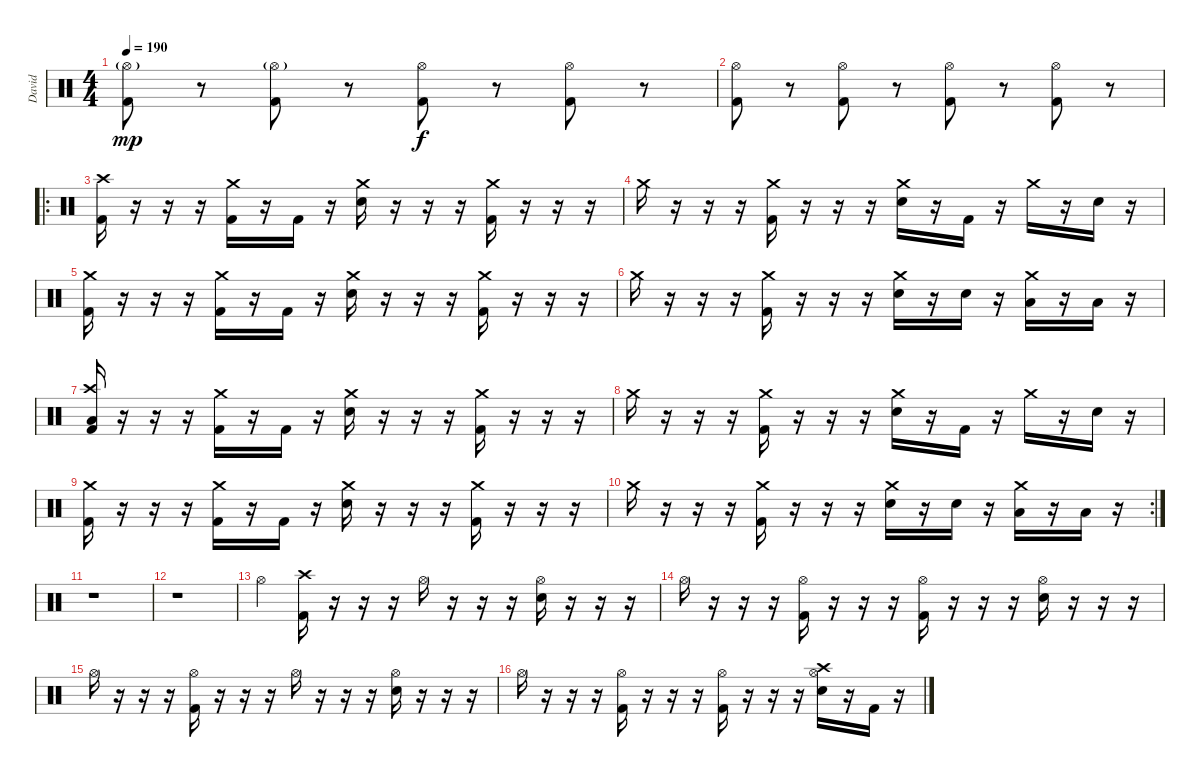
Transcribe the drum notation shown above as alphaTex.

\track ("David" "David") {instrument percussion}
\staff {score}
\articulation defaults
\ts (4 4)
\tempo 190
\clef neutral
\ks c
("Hi-Hat (open)"{g} "Kick (hit) 2").8{dy mp} r.8 ("Hi-Hat (open)"{g} "Kick (hit) 2").8 r.8 ("Hi-Hat (open)" "Kick (hit) 2").8{dy f} r.8 ("Hi-Hat (open)" "Kick (hit) 2").8 r.8 |
("Hi-Hat (open)" "Kick (hit) 2").8 r.8 ("Hi-Hat (open)" "Kick (hit) 2").8 r.8 ("Hi-Hat (open)" "Kick (hit) 2").8 r.8 ("Hi-Hat (open)" "Kick (hit) 2").8 r.8 |
\ro
("Crash high (hit)" "Kick (hit) 2").16 r.16 r.16 r.16 ("Crash medium (hit)" "Kick (hit) 2").16 r.16 "Kick (hit) 2".16 r.16 ("Crash medium (hit)" "Electric Snare (hit)").16 r.16 r.16 r.16 ("Crash medium (hit)" "Kick (hit) 2").16 r.16 r.16 r.16 |
"Crash medium (hit)".16 r.16 r.16 r.16 ("Crash medium (hit)" "Kick (hit) 2").16 r.16 r.16 r.16 ("Crash medium (hit)" "Electric Snare (hit)").16 r.16 "Kick (hit) 2".16 r.16 "Crash medium (hit)".16 r.16 "Electric Snare (hit)".16 r.16 |
("Crash medium (hit)" "Kick (hit) 2").16 r.16 r.16 r.16 ("Crash medium (hit)" "Kick (hit) 2").16 r.16 "Kick (hit) 2".16 r.16 ("Crash medium (hit)" "Electric Snare (hit)").16 r.16 r.16 r.16 ("Crash medium (hit)" "Kick (hit) 2").16 r.16 r.16 r.16 |
"Crash medium (hit)".16 r.16 r.16 r.16 ("Crash medium (hit)" "Kick (hit) 2").16 r.16 r.16 r.16 ("Crash medium (hit)" "Electric Snare (hit)").16 r.16 "Electric Snare (hit)".16 r.16 ("Crash medium (hit)" "Low Tom (hit)").16 r.16 "Low Tom (hit)".16 r.16 |
("Crash high (hit)" "Low Floor Tom (hit)" "Kick (hit) 2").16 r.16 r.16 r.16 ("Crash medium (hit)" "Kick (hit) 2").16 r.16 "Kick (hit) 2".16 r.16 ("Crash medium (hit)" "Electric Snare (hit)").16 r.16 r.16 r.16 ("Crash medium (hit)" "Kick (hit) 2").16 r.16 r.16 r.16 |
"Crash medium (hit)".16 r.16 r.16 r.16 ("Crash medium (hit)" "Kick (hit) 2").16 r.16 r.16 r.16 ("Crash medium (hit)" "Electric Snare (hit)").16 r.16 "Kick (hit) 2".16 r.16 "Crash medium (hit)".16 r.16 "Electric Snare (hit)".16 r.16 |
("Crash medium (hit)" "Kick (hit) 2").16 r.16 r.16 r.16 ("Crash medium (hit)" "Kick (hit) 2").16 r.16 "Kick (hit) 2".16 r.16 ("Crash medium (hit)" "Electric Snare (hit)").16 r.16 r.16 r.16 ("Crash medium (hit)" "Kick (hit) 2").16 r.16 r.16 r.16 |
\rc 2 "Crash medium (hit)".16
r.16 r.16 r.16 ("Crash medium (hit)" "Kick (hit) 2").16 r.16 r.16 r.16 ("Crash medium (hit)" "Electric Snare (hit)").16 r.16 "Electric Snare (hit)".16 r.16 ("Crash medium (hit)" "Low Tom (hit)").16 r.16 "Low Tom (hit)".16 r.16 |
r.1 |
r.1 |
"Hi-Hat (open)".4 ("Crash high (hit)" "Kick (hit) 2").16 r.16 r.16 r.16 "Hi-Hat (open)".16 r.16 r.16 r.16 ("Hi-Hat (open)" "Electric Snare (hit)").16 r.16 r.16 r.16 |
"Hi-Hat (open)".16 r.16 r.16 r.16 ("Hi-Hat (open)" "Kick (hit) 2").16 r.16 r.16 r.16 ("Hi-Hat (open)" "Kick (hit) 2").16 r.16 r.16 r.16 ("Hi-Hat (open)" "Electric Snare (hit)").16 r.16 r.16 r.16 |
"Hi-Hat (open)".16 r.16 r.16 r.16 ("Hi-Hat (open)" "Kick (hit) 2").16 r.16 r.16 r.16 "Hi-Hat (open)".16 r.16 r.16 r.16 ("Hi-Hat (open)" "Electric Snare (hit)").16 r.16 r.16 r.16 |
"Hi-Hat (open)".16 r.16 r.16 r.16 ("Hi-Hat (open)" "Kick (hit) 2").16 r.16 r.16 r.16 ("Hi-Hat (open)" "Kick (hit) 2").16 r.16 r.16 r.16 ("Crash high (hit)" "Hi-Hat (open)" "Electric Snare (hit)").16 r.16 "Kick (hit) 2".16 r.16
